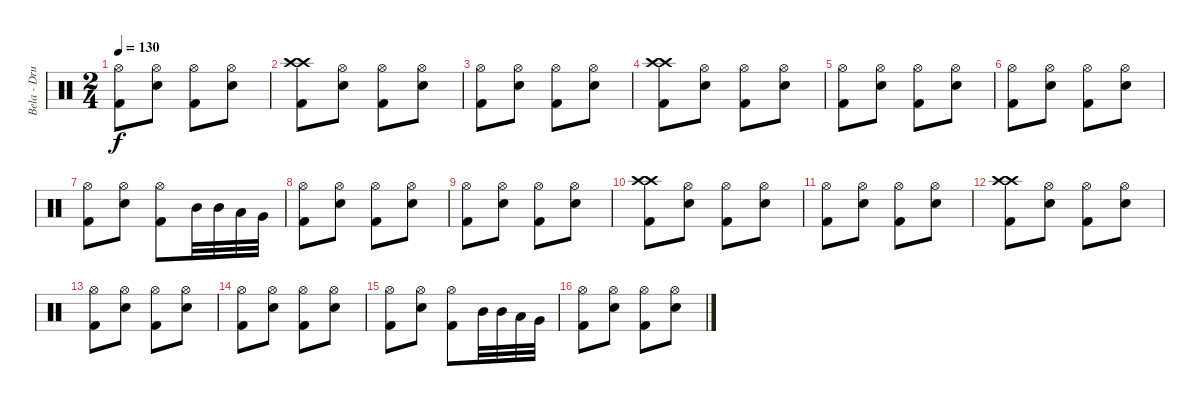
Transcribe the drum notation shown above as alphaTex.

\track ("Bela - Drums" "Bela - Dru") {instrument percussion}
\staff {score}
\articulation defaults
\ts (2 4)
\tempo 130
\clef neutral
\ks c
("Hi-Hat (open)" "Kick (hit) 2").8{dy f} ("Hi-Hat (open)" "Snare (hit) 2").8 ("Hi-Hat (open)" "Kick (hit) 2").8 ("Hi-Hat (open)" "Snare (hit) 2").8 |
("Crash high (hit)" "Crash high (hit)" "Kick (hit) 2").8 ("Hi-Hat (open)" "Snare (hit) 2").8 ("Hi-Hat (open)" "Kick (hit) 2").8 ("Hi-Hat (open)" "Snare (hit) 2").8 |
("Hi-Hat (open)" "Kick (hit) 2").8 ("Hi-Hat (open)" "Snare (hit) 2").8 ("Hi-Hat (open)" "Kick (hit) 2").8 ("Hi-Hat (open)" "Snare (hit) 2").8 |
("Crash high (hit)" "Crash high (hit)" "Kick (hit) 2").8 ("Hi-Hat (open)" "Snare (hit) 2").8 ("Hi-Hat (open)" "Kick (hit) 2").8 ("Hi-Hat (open)" "Snare (hit) 2").8 |
("Hi-Hat (open)" "Kick (hit) 2").8 ("Hi-Hat (open)" "Snare (hit) 2").8 ("Hi-Hat (open)" "Kick (hit) 2").8 ("Hi-Hat (open)" "Snare (hit) 2").8 |
("Hi-Hat (open)" "Kick (hit) 2").8 ("Hi-Hat (open)" "Snare (hit) 2").8 ("Hi-Hat (open)" "Kick (hit) 2").8 ("Hi-Hat (open)" "Snare (hit) 2").8 |
("Hi-Hat (open)" "Kick (hit) 2").8 ("Hi-Hat (open)" "Snare (hit) 2").8 ("Hi-Hat (open)" "Kick (hit) 2").8 "Mid Tom (hit)".32 "Mid Tom (hit)".32 "Low Floor Tom (hit)".32 "Very Low Tom (hit)".32 |
("Hi-Hat (open)" "Kick (hit) 2").8 ("Hi-Hat (open)" "Snare (hit) 2").8 ("Hi-Hat (open)" "Kick (hit) 2").8 ("Hi-Hat (open)" "Snare (hit) 2").8 |
("Hi-Hat (open)" "Kick (hit) 2").8 ("Hi-Hat (open)" "Snare (hit) 2").8 ("Hi-Hat (open)" "Kick (hit) 2").8 ("Hi-Hat (open)" "Snare (hit) 2").8 |
("Crash high (hit)" "Crash high (hit)" "Kick (hit) 2").8 ("Hi-Hat (open)" "Snare (hit) 2").8 ("Hi-Hat (open)" "Kick (hit) 2").8 ("Hi-Hat (open)" "Snare (hit) 2").8 |
("Hi-Hat (open)" "Kick (hit) 2").8 ("Hi-Hat (open)" "Snare (hit) 2").8 ("Hi-Hat (open)" "Kick (hit) 2").8 ("Hi-Hat (open)" "Snare (hit) 2").8 |
("Crash high (hit)" "Crash high (hit)" "Kick (hit) 2").8 ("Hi-Hat (open)" "Snare (hit) 2").8 ("Hi-Hat (open)" "Kick (hit) 2").8 ("Hi-Hat (open)" "Snare (hit) 2").8 |
("Hi-Hat (open)" "Kick (hit) 2").8 ("Hi-Hat (open)" "Snare (hit) 2").8 ("Hi-Hat (open)" "Kick (hit) 2").8 ("Hi-Hat (open)" "Snare (hit) 2").8 |
("Hi-Hat (open)" "Kick (hit) 2").8 ("Hi-Hat (open)" "Snare (hit) 2").8 ("Hi-Hat (open)" "Kick (hit) 2").8 ("Hi-Hat (open)" "Snare (hit) 2").8 |
("Hi-Hat (open)" "Kick (hit) 2").8 ("Hi-Hat (open)" "Snare (hit) 2").8 ("Hi-Hat (open)" "Kick (hit) 2").8 "Mid Tom (hit)".32 "Mid Tom (hit)".32 "Low Floor Tom (hit)".32 "Very Low Tom (hit)".32 |
("Hi-Hat (open)" "Kick (hit) 2").8 ("Hi-Hat (open)" "Snare (hit) 2").8 ("Hi-Hat (open)" "Kick (hit) 2").8 ("Hi-Hat (open)" "Snare (hit) 2").8
